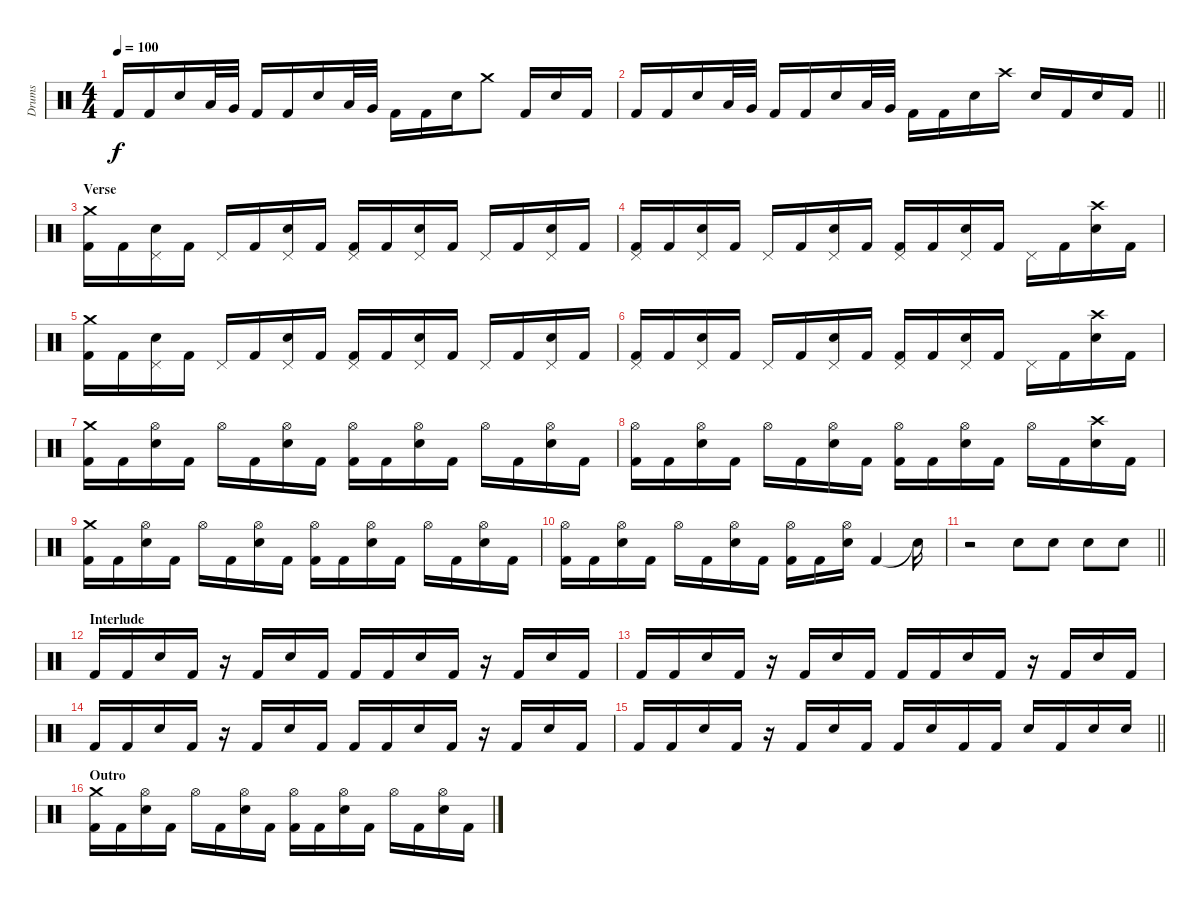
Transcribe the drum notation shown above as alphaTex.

\track ("Drums" "Drums") {instrument percussion}
\staff {score}
\articulation defaults
\ts (4 4)
\tempo 100
\clef neutral
\ks c "Kick (hit) 2".16{dy f} "Kick (hit) 2".16 "Electric Snare (hit)".16 "Low Tom (hit)".32 "Very Low Tom (hit)".32 "Kick (hit) 2".16 "Kick (hit) 2".16 "Electric Snare (hit)".16 "Low Tom (hit)".32 "Very Low Tom (hit)".32 "Kick (hit) 2".16 "Kick (hit) 2".16 "Electric Snare (hit)".16 "Crash medium (hit)".8 "Kick (hit) 2".16 "Electric Snare (hit)".16 "Kick (hit) 2".16
|
\barLineRight lightlight "Kick (hit) 2".16 "Kick (hit) 2".16 "Electric Snare (hit)".16 "Low Tom (hit)".32 "Very Low Tom (hit)".32 "Kick (hit) 2".16 "Kick (hit) 2".16 "Electric Snare (hit)".16 "Low Tom (hit)".32 "Very Low Tom (hit)".32 "Kick (hit) 2".16 "Kick (hit) 2".16 "Electric Snare (hit)".16 "Crash high (hit)".16 "Electric Snare (hit)".16 "Kick (hit) 2".16 "Electric Snare (hit)".16 "Kick (hit) 2".16
|
\section ("" "Verse")
("Crash medium (hit)" "Kick (hit) 2").16 "Kick (hit) 2".16 ("Pedal Hi-Hat (hit)" "Electric Snare (hit)").16 "Kick (hit) 2".16 "Pedal Hi-Hat (hit)".16 "Kick (hit) 2".16 ("Pedal Hi-Hat (hit)" "Electric Snare (hit)").16 "Kick (hit) 2".16 ("Pedal Hi-Hat (hit)" "Kick (hit) 2").16 "Kick (hit) 2".16 ("Pedal Hi-Hat (hit)" "Electric Snare (hit)").16 "Kick (hit) 2".16 "Pedal Hi-Hat (hit)".16 "Kick (hit) 2".16 ("Pedal Hi-Hat (hit)" "Electric Snare (hit)").16 "Kick (hit) 2".16 |
("Pedal Hi-Hat (hit)" "Kick (hit) 2").16 "Kick (hit) 2".16 ("Pedal Hi-Hat (hit)" "Electric Snare (hit)").16 "Kick (hit) 2".16 "Pedal Hi-Hat (hit)".16 "Kick (hit) 2".16 ("Pedal Hi-Hat (hit)" "Electric Snare (hit)").16 "Kick (hit) 2".16 ("Pedal Hi-Hat (hit)" "Kick (hit) 2").16 "Kick (hit) 2".16 ("Pedal Hi-Hat (hit)" "Electric Snare (hit)").16 "Kick (hit) 2".16 "Pedal Hi-Hat (hit)".16 "Kick (hit) 2".16 ("Crash high (hit)" "Electric Snare (hit)").16 "Kick (hit) 2".16 |
("Crash medium (hit)" "Kick (hit) 2").16 "Kick (hit) 2".16 ("Pedal Hi-Hat (hit)" "Electric Snare (hit)").16 "Kick (hit) 2".16 "Pedal Hi-Hat (hit)".16 "Kick (hit) 2".16 ("Pedal Hi-Hat (hit)" "Electric Snare (hit)").16 "Kick (hit) 2".16 ("Pedal Hi-Hat (hit)" "Kick (hit) 2").16 "Kick (hit) 2".16 ("Pedal Hi-Hat (hit)" "Electric Snare (hit)").16 "Kick (hit) 2".16 "Pedal Hi-Hat (hit)".16 "Kick (hit) 2".16 ("Pedal Hi-Hat (hit)" "Electric Snare (hit)").16 "Kick (hit) 2".16 |
("Pedal Hi-Hat (hit)" "Kick (hit) 2").16 "Kick (hit) 2".16 ("Pedal Hi-Hat (hit)" "Electric Snare (hit)").16 "Kick (hit) 2".16 "Pedal Hi-Hat (hit)".16 "Kick (hit) 2".16 ("Pedal Hi-Hat (hit)" "Electric Snare (hit)").16 "Kick (hit) 2".16 ("Pedal Hi-Hat (hit)" "Kick (hit) 2").16 "Kick (hit) 2".16 ("Pedal Hi-Hat (hit)" "Electric Snare (hit)").16 "Kick (hit) 2".16 "Pedal Hi-Hat (hit)".16 "Kick (hit) 2".16 ("Crash high (hit)" "Electric Snare (hit)").16 "Kick (hit) 2".16 |
("Crash medium (hit)" "Kick (hit) 2").16 "Kick (hit) 2".16 ("Hi-Hat (open)" "Electric Snare (hit)").16 "Kick (hit) 2".16 "Hi-Hat (open)".16 "Kick (hit) 2".16 ("Hi-Hat (open)" "Electric Snare (hit)").16 "Kick (hit) 2".16 ("Hi-Hat (open)" "Kick (hit) 2").16 "Kick (hit) 2".16 ("Hi-Hat (open)" "Electric Snare (hit)").16 "Kick (hit) 2".16 "Hi-Hat (open)".16 "Kick (hit) 2".16 ("Hi-Hat (open)" "Electric Snare (hit)").16 "Kick (hit) 2".16 |
("Hi-Hat (open)" "Kick (hit) 2").16 "Kick (hit) 2".16 ("Hi-Hat (open)" "Electric Snare (hit)").16 "Kick (hit) 2".16 "Hi-Hat (open)".16 "Kick (hit) 2".16 ("Hi-Hat (open)" "Electric Snare (hit)").16 "Kick (hit) 2".16 ("Hi-Hat (open)" "Kick (hit) 2").16 "Kick (hit) 2".16 ("Hi-Hat (open)" "Electric Snare (hit)").16 "Kick (hit) 2".16 "Hi-Hat (open)".16 "Kick (hit) 2".16 ("Crash high (hit)" "Electric Snare (hit)").16 "Kick (hit) 2".16 |
("Crash medium (hit)" "Kick (hit) 2").16 "Kick (hit) 2".16 ("Hi-Hat (open)" "Electric Snare (hit)").16 "Kick (hit) 2".16 "Hi-Hat (open)".16 "Kick (hit) 2".16 ("Hi-Hat (open)" "Electric Snare (hit)").16 "Kick (hit) 2".16 ("Hi-Hat (open)" "Kick (hit) 2").16 "Kick (hit) 2".16 ("Hi-Hat (open)" "Electric Snare (hit)").16 "Kick (hit) 2".16 "Hi-Hat (open)".16 "Kick (hit) 2".16 ("Hi-Hat (open)" "Electric Snare (hit)").16 "Kick (hit) 2".16 |
("Hi-Hat (open)" "Kick (hit) 2").16 "Kick (hit) 2".16 ("Hi-Hat (open)" "Electric Snare (hit)").16 "Kick (hit) 2".16 "Hi-Hat (open)".16 "Kick (hit) 2".16 ("Hi-Hat (open)" "Electric Snare (hit)").16 "Kick (hit) 2".16 ("Hi-Hat (open)" "Kick (hit) 2").16 "Kick (hit) 2".16 ("Hi-Hat (open)" "Electric Snare (hit)").16 "Kick (hit) 2".4 "Snare (hit)"{t}.16 |
\barLineRight lightlight
r.2 "Electric Snare (hit)".8 "Electric Snare (hit)".8 "Electric Snare (hit)".8 "Electric Snare (hit)".8 |
\section ("" "Interlude")
"Kick (hit) 2".16 "Kick (hit) 2".16 "Electric Snare (hit)".16 "Kick (hit) 2".16 r.16 "Kick (hit) 2".16 "Electric Snare (hit)".16 "Kick (hit) 2".16 "Kick (hit) 2".16 "Kick (hit) 2".16 "Electric Snare (hit)".16 "Kick (hit) 2".16 r.16 "Kick (hit) 2".16 "Electric Snare (hit)".16 "Kick (hit) 2".16 |
"Kick (hit) 2".16 "Kick (hit) 2".16 "Electric Snare (hit)".16 "Kick (hit) 2".16 r.16 "Kick (hit) 2".16 "Electric Snare (hit)".16 "Kick (hit) 2".16 "Kick (hit) 2".16 "Kick (hit) 2".16 "Electric Snare (hit)".16 "Kick (hit) 2".16 r.16 "Kick (hit) 2".16 "Electric Snare (hit)".16 "Kick (hit) 2".16 |
"Kick (hit) 2".16 "Kick (hit) 2".16 "Electric Snare (hit)".16 "Kick (hit) 2".16 r.16 "Kick (hit) 2".16 "Electric Snare (hit)".16 "Kick (hit) 2".16 "Kick (hit) 2".16 "Kick (hit) 2".16 "Electric Snare (hit)".16 "Kick (hit) 2".16 r.16 "Kick (hit) 2".16 "Electric Snare (hit)".16 "Kick (hit) 2".16 |
\barLineRight lightlight "Kick (hit) 2".16 "Kick (hit) 2".16 "Electric Snare (hit)".16 "Kick (hit) 2".16
r.16 "Kick (hit) 2".16 "Electric Snare (hit)".16 "Kick (hit) 2".16 "Kick (hit) 2".16 "Electric Snare (hit)".16 "Kick (hit) 2".16 "Kick (hit) 2".16 "Electric Snare (hit)".16 "Kick (hit) 2".16 "Electric Snare (hit)".16 "Electric Snare (hit)".16 |
\section ("" "Outro")
("Crash medium (hit)" "Kick (hit) 2").16 "Kick (hit) 2".16 ("Hi-Hat (open)" "Electric Snare (hit)").16 "Kick (hit) 2".16 "Hi-Hat (open)".16 "Kick (hit) 2".16 ("Hi-Hat (open)" "Electric Snare (hit)").16 "Kick (hit) 2".16 ("Hi-Hat (open)" "Kick (hit) 2").16 "Kick (hit) 2".16 ("Hi-Hat (open)" "Electric Snare (hit)").16 "Kick (hit) 2".16 "Hi-Hat (open)".16 "Kick (hit) 2".16 ("Hi-Hat (open)" "Electric Snare (hit)").16 "Kick (hit) 2".16
